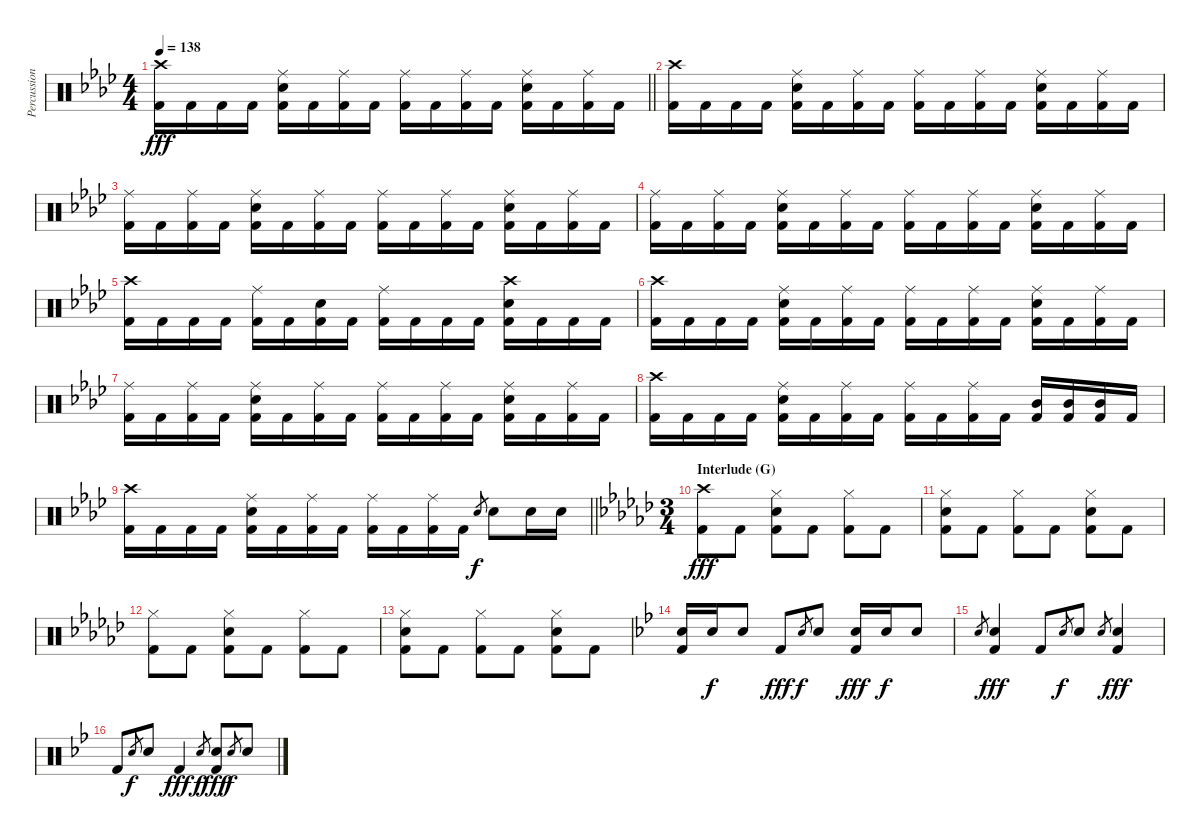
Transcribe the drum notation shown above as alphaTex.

\track ("Percussion" "Percussion") {instrument percussion}
\staff {score}
\articulation defaults
\ts (4 4)
\tempo 138
\clef neutral
\barLineRight lightlight
\ks fminor
("Crash high (hit)" "Kick (hit) 2").16{dy fff} "Kick (hit) 2".16 "Kick (hit) 2".16 "Kick (hit) 2".16 ("Ride (middle)" "Electric Snare (hit)" "Kick (hit) 2").16 "Kick (hit) 2".16 ("Ride (middle)" "Kick (hit) 2").16 "Kick (hit) 2".16 ("Ride (middle)" "Kick (hit) 2").16 "Kick (hit) 2".16 ("Ride (middle)" "Kick (hit) 2").16 "Kick (hit) 2".16 ("Ride (middle)" "Electric Snare (hit)" "Kick (hit) 2").16 "Kick (hit) 2".16 ("Ride (middle)" "Kick (hit) 2").16 "Kick (hit) 2".16 |
("Crash high (hit)" "Kick (hit) 2").16 "Kick (hit) 2".16 "Kick (hit) 2".16 "Kick (hit) 2".16 ("Ride (middle)" "Electric Snare (hit)" "Kick (hit) 2").16 "Kick (hit) 2".16 ("Ride (middle)" "Kick (hit) 2").16 "Kick (hit) 2".16 ("Ride (middle)" "Kick (hit) 2").16 "Kick (hit) 2".16 ("Ride (middle)" "Kick (hit) 2").16 "Kick (hit) 2".16 ("Ride (middle)" "Electric Snare (hit)" "Kick (hit) 2").16 "Kick (hit) 2".16 ("Ride (middle)" "Kick (hit) 2").16 "Kick (hit) 2".16 |
("Ride (middle)" "Kick (hit) 2").16 "Kick (hit) 2".16 ("Ride (middle)" "Kick (hit) 2").16 "Kick (hit) 2".16 ("Ride (middle)" "Electric Snare (hit)" "Kick (hit) 2").16 "Kick (hit) 2".16 ("Ride (middle)" "Kick (hit) 2").16 "Kick (hit) 2".16 ("Ride (middle)" "Kick (hit) 2").16 "Kick (hit) 2".16 ("Ride (middle)" "Kick (hit) 2").16 "Kick (hit) 2".16 ("Ride (middle)" "Electric Snare (hit)" "Kick (hit) 2").16 "Kick (hit) 2".16 ("Ride (middle)" "Kick (hit) 2").16 "Kick (hit) 2".16 |
("Ride (middle)" "Kick (hit) 2").16 "Kick (hit) 2".16 ("Ride (middle)" "Kick (hit) 2").16 "Kick (hit) 2".16 ("Ride (middle)" "Electric Snare (hit)" "Kick (hit) 2").16 "Kick (hit) 2".16 ("Ride (middle)" "Kick (hit) 2").16 "Kick (hit) 2".16 ("Ride (middle)" "Kick (hit) 2").16 "Kick (hit) 2".16 ("Ride (middle)" "Kick (hit) 2").16 "Kick (hit) 2".16 ("Ride (middle)" "Electric Snare (hit)" "Kick (hit) 2").16 "Kick (hit) 2".16 ("Ride (middle)" "Kick (hit) 2").16 "Kick (hit) 2".16 |
("Crash high (hit)" "Kick (hit) 2").16 "Kick (hit) 2".16 "Kick (hit) 2".16 "Kick (hit) 2".16 ("Ride (middle)" "Kick (hit) 2").16 "Kick (hit) 2".16 ("Electric Snare (hit)" "Kick (hit) 2").16 "Kick (hit) 2".16 ("Ride (middle)" "Kick (hit) 2").16 "Kick (hit) 2".16 "Kick (hit) 2".16 "Kick (hit) 2".16 ("Crash high (hit)" "Electric Snare (hit)" "Kick (hit) 2").16 "Kick (hit) 2".16 "Kick (hit) 2".16 "Kick (hit) 2".16 |
("Crash high (hit)" "Kick (hit) 2").16 "Kick (hit) 2".16 "Kick (hit) 2".16 "Kick (hit) 2".16 ("Ride (middle)" "Electric Snare (hit)" "Kick (hit) 2").16 "Kick (hit) 2".16 ("Ride (middle)" "Kick (hit) 2").16 "Kick (hit) 2".16 ("Ride (middle)" "Kick (hit) 2").16 "Kick (hit) 2".16 ("Ride (middle)" "Kick (hit) 2").16 "Kick (hit) 2".16 ("Ride (middle)" "Electric Snare (hit)" "Kick (hit) 2").16 "Kick (hit) 2".16 ("Ride (middle)" "Kick (hit) 2").16 "Kick (hit) 2".16 |
("Ride (middle)" "Kick (hit) 2").16 "Kick (hit) 2".16 ("Ride (middle)" "Kick (hit) 2").16 "Kick (hit) 2".16 ("Ride (middle)" "Electric Snare (hit)" "Kick (hit) 2").16 "Kick (hit) 2".16 ("Ride (middle)" "Kick (hit) 2").16 "Kick (hit) 2".16 ("Ride (middle)" "Kick (hit) 2").16 "Kick (hit) 2".16 ("Ride (middle)" "Kick (hit) 2").16 "Kick (hit) 2".16 ("Ride (middle)" "Electric Snare (hit)" "Kick (hit) 2").16 "Kick (hit) 2".16 ("Ride (middle)" "Kick (hit) 2").16 "Kick (hit) 2".16 |
("Crash high (hit)" "Kick (hit) 2").16 "Kick (hit) 2".16 "Kick (hit) 2".16 "Kick (hit) 2".16 ("Ride (middle)" "Electric Snare (hit)" "Kick (hit) 2").16 "Kick (hit) 2".16 ("Ride (middle)" "Kick (hit) 2").16 "Kick (hit) 2".16 ("Ride (middle)" "Kick (hit) 2").16 "Kick (hit) 2".16 ("Ride (middle)" "Kick (hit) 2").16 "Kick (hit) 2".16 ("Mid Tom (hit)" "Kick (hit) 2").16 ("Mid Tom (hit)" "Kick (hit) 2").16 ("Mid Tom (hit)" "Kick (hit) 2").16 "Kick (hit) 2".16 |
\barLineRight lightlight
("Crash high (hit)" "Kick (hit) 2").16 "Kick (hit) 2".16 "Kick (hit) 2".16 "Kick (hit) 2".16 ("Ride (middle)" "Electric Snare (hit)" "Kick (hit) 2").16 "Kick (hit) 2".16 ("Ride (middle)" "Kick (hit) 2").16 "Kick (hit) 2".16 ("Ride (middle)" "Kick (hit) 2").16 "Kick (hit) 2".16 ("Ride (middle)" "Kick (hit) 2").16 "Kick (hit) 2".16 "Electric Snare (hit)".8{gr dy f} "Electric Snare (hit)".8 "Electric Snare (hit)".16 "Electric Snare (hit)".16 |
\ts (3 4)
\section ("" "Interlude (G)")
\ks ebminor
("Crash high (hit)" "Kick (hit) 2").8{dy fff} "Kick (hit) 2".8 ("Hi-Hat (closed)" "Electric Snare (hit)" "Kick (hit) 2").8 "Kick (hit) 2".8 ("Hi-Hat (closed)" "Kick (hit) 2").8 "Kick (hit) 2".8 |
("Hi-Hat (closed)" "Electric Snare (hit)" "Kick (hit) 2").8 "Kick (hit) 2".8 ("Hi-Hat (closed)" "Kick (hit) 2").8 "Kick (hit) 2".8 ("Hi-Hat (closed)" "Electric Snare (hit)" "Kick (hit) 2").8 "Kick (hit) 2".8 |
("Hi-Hat (closed)" "Kick (hit) 2").8 "Kick (hit) 2".8 ("Hi-Hat (closed)" "Electric Snare (hit)" "Kick (hit) 2").8 "Kick (hit) 2".8 ("Hi-Hat (closed)" "Kick (hit) 2").8 "Kick (hit) 2".8 |
("Hi-Hat (closed)" "Electric Snare (hit)" "Kick (hit) 2").8 "Kick (hit) 2".8 ("Hi-Hat (closed)" "Kick (hit) 2").8 "Kick (hit) 2".8 ("Hi-Hat (closed)" "Electric Snare (hit)" "Kick (hit) 2").8 "Kick (hit) 2".8 |
\ks gminor
("Electric Snare (hit)" "Kick (hit) 2").16 "Electric Snare (hit)".16{dy f} "Electric Snare (hit)".8 "Kick (hit) 2".8{dy fff} "Electric Snare (hit)".8{gr dy f} "Electric Snare (hit)".8 ("Electric Snare (hit)" "Kick (hit) 2").16{dy fff} "Electric Snare (hit)".16{dy f} "Electric Snare (hit)".8 |
"Electric Snare (hit)".8{gr} ("Electric Snare (hit)" "Kick (hit) 2").4{dy fff} "Kick (hit) 2".8 "Electric Snare (hit)".8{gr dy f} "Electric Snare (hit)".8 "Electric Snare (hit)".8{gr} ("Electric Snare (hit)" "Kick (hit) 2").4{dy fff} |
"Kick (hit) 2".8 "Electric Snare (hit)".8{gr dy f} "Electric Snare (hit)".8 "Kick (hit) 2".4{dy fff} "Electric Snare (hit)".8{gr dy f} ("Electric Snare (hit)" "Kick (hit) 2").8{dy fff} "Electric Snare (hit)".8{gr dy f} "Electric Snare (hit)".8
